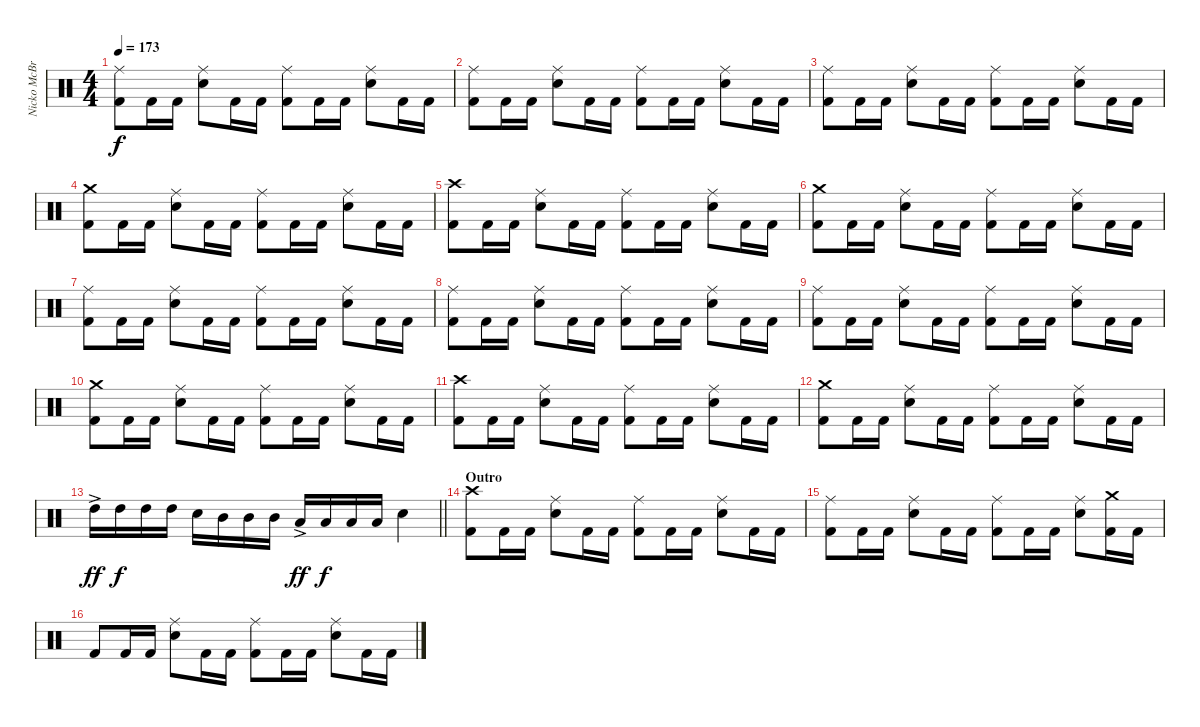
\track ("Nicko McBrain" "Nicko McBr") {instrument percussion}
\staff {score}
\articulation defaults
\ts (4 4)
\tempo 173
\clef neutral
\ks c
("Ride (middle)" "Kick (hit) 2").8{dy f} "Kick (hit) 2".16 "Kick (hit) 2".16 ("Ride (middle)" "Electric Snare (hit)").8 "Kick (hit) 2".16 "Kick (hit) 2".16 ("Ride (middle)" "Kick (hit) 2").8 "Kick (hit) 2".16 "Kick (hit) 2".16 ("Ride (middle)" "Electric Snare (hit)").8 "Kick (hit) 2".16 "Kick (hit) 2".16 |
("Ride (middle)" "Kick (hit) 2").8 "Kick (hit) 2".16 "Kick (hit) 2".16 ("Ride (middle)" "Electric Snare (hit)").8 "Kick (hit) 2".16 "Kick (hit) 2".16 ("Ride (middle)" "Kick (hit) 2").8 "Kick (hit) 2".16 "Kick (hit) 2".16 ("Ride (middle)" "Electric Snare (hit)").8 "Kick (hit) 2".16 "Kick (hit) 2".16 |
("Ride (middle)" "Kick (hit) 2").8 "Kick (hit) 2".16 "Kick (hit) 2".16 ("Ride (middle)" "Electric Snare (hit)").8 "Kick (hit) 2".16 "Kick (hit) 2".16 ("Ride (middle)" "Kick (hit) 2").8 "Kick (hit) 2".16 "Kick (hit) 2".16 ("Ride (middle)" "Electric Snare (hit)").8 "Kick (hit) 2".16 "Kick (hit) 2".16 |
("Crash medium (hit)" "Kick (hit) 2").8 "Kick (hit) 2".16 "Kick (hit) 2".16 ("Ride (middle)" "Electric Snare (hit)").8 "Kick (hit) 2".16 "Kick (hit) 2".16 ("Ride (middle)" "Kick (hit) 2").8 "Kick (hit) 2".16 "Kick (hit) 2".16 ("Ride (middle)" "Electric Snare (hit)").8 "Kick (hit) 2".16 "Kick (hit) 2".16 |
("Crash high (hit)" "Kick (hit) 2").8 "Kick (hit) 2".16 "Kick (hit) 2".16 ("Ride (middle)" "Electric Snare (hit)").8 "Kick (hit) 2".16 "Kick (hit) 2".16 ("Ride (middle)" "Kick (hit) 2").8 "Kick (hit) 2".16 "Kick (hit) 2".16 ("Ride (middle)" "Electric Snare (hit)").8 "Kick (hit) 2".16 "Kick (hit) 2".16 |
("Crash medium (hit)" "Kick (hit) 2").8 "Kick (hit) 2".16 "Kick (hit) 2".16 ("Ride (middle)" "Electric Snare (hit)").8 "Kick (hit) 2".16 "Kick (hit) 2".16 ("Ride (middle)" "Kick (hit) 2").8 "Kick (hit) 2".16 "Kick (hit) 2".16 ("Ride (middle)" "Electric Snare (hit)").8 "Kick (hit) 2".16 "Kick (hit) 2".16 |
("Ride (middle)" "Kick (hit) 2").8 "Kick (hit) 2".16 "Kick (hit) 2".16 ("Ride (middle)" "Electric Snare (hit)").8 "Kick (hit) 2".16 "Kick (hit) 2".16 ("Ride (middle)" "Kick (hit) 2").8 "Kick (hit) 2".16 "Kick (hit) 2".16 ("Ride (middle)" "Electric Snare (hit)").8 "Kick (hit) 2".16 "Kick (hit) 2".16 |
("Ride (middle)" "Kick (hit) 2").8 "Kick (hit) 2".16 "Kick (hit) 2".16 ("Ride (middle)" "Electric Snare (hit)").8 "Kick (hit) 2".16 "Kick (hit) 2".16 ("Ride (middle)" "Kick (hit) 2").8 "Kick (hit) 2".16 "Kick (hit) 2".16 ("Ride (middle)" "Electric Snare (hit)").8 "Kick (hit) 2".16 "Kick (hit) 2".16 |
("Ride (middle)" "Kick (hit) 2").8 "Kick (hit) 2".16 "Kick (hit) 2".16 ("Ride (middle)" "Electric Snare (hit)").8 "Kick (hit) 2".16 "Kick (hit) 2".16 ("Ride (middle)" "Kick (hit) 2").8 "Kick (hit) 2".16 "Kick (hit) 2".16 ("Ride (middle)" "Electric Snare (hit)").8 "Kick (hit) 2".16 "Kick (hit) 2".16 |
("Crash medium (hit)" "Kick (hit) 2").8 "Kick (hit) 2".16 "Kick (hit) 2".16 ("Ride (middle)" "Electric Snare (hit)").8 "Kick (hit) 2".16 "Kick (hit) 2".16 ("Ride (middle)" "Kick (hit) 2").8 "Kick (hit) 2".16 "Kick (hit) 2".16 ("Ride (middle)" "Electric Snare (hit)").8 "Kick (hit) 2".16 "Kick (hit) 2".16 |
("Crash high (hit)" "Kick (hit) 2").8 "Kick (hit) 2".16 "Kick (hit) 2".16 ("Ride (middle)" "Electric Snare (hit)").8 "Kick (hit) 2".16 "Kick (hit) 2".16 ("Ride (middle)" "Kick (hit) 2").8 "Kick (hit) 2".16 "Kick (hit) 2".16 ("Ride (middle)" "Electric Snare (hit)").8 "Kick (hit) 2".16 "Kick (hit) 2".16 |
("Crash medium (hit)" "Kick (hit) 2").8 "Kick (hit) 2".16 "Kick (hit) 2".16 ("Ride (middle)" "Electric Snare (hit)").8 "Kick (hit) 2".16 "Kick (hit) 2".16 ("Ride (middle)" "Kick (hit) 2").8 "Kick (hit) 2".16 "Kick (hit) 2".16 ("Ride (middle)" "Electric Snare (hit)").8 "Kick (hit) 2".16 "Kick (hit) 2".16 |
\barLineRight lightlight "High Tom (hit)"{ac}.16{dy ff} "High Tom (hit)".16{dy f} "High Tom (hit)".16 "High Tom (hit)".16 "Electric Snare (hit)".16 "Mid Tom (hit)".16 "Mid Tom (hit)".16 "Mid Tom (hit)".16 "Low Tom (hit)"{ac}.16{dy ff} "Low Tom (hit)".16{dy f} "Low Tom (hit)".16 "Low Tom (hit)".16 "Electric Snare (hit)".4
|
\section ("" "Outro")
("Crash high (hit)" "Kick (hit) 2").8 "Kick (hit) 2".16 "Kick (hit) 2".16 ("Ride (middle)" "Electric Snare (hit)").8 "Kick (hit) 2".16 "Kick (hit) 2".16 ("Ride (middle)" "Kick (hit) 2").8 "Kick (hit) 2".16 "Kick (hit) 2".16 ("Ride (middle)" "Electric Snare (hit)").8 "Kick (hit) 2".16 "Kick (hit) 2".16 |
("Ride (middle)" "Kick (hit) 2").8 "Kick (hit) 2".16 "Kick (hit) 2".16 ("Ride (middle)" "Electric Snare (hit)").8 "Kick (hit) 2".16 "Kick (hit) 2".16 ("Ride (middle)" "Kick (hit) 2").8 "Kick (hit) 2".16 "Kick (hit) 2".16 ("Ride (middle)" "Electric Snare (hit)").8 ("Crash medium (hit)" "Kick (hit) 2").16 "Kick (hit) 2".16 |
"Kick (hit) 2".8 "Kick (hit) 2".16 "Kick (hit) 2".16 ("Ride (middle)" "Electric Snare (hit)").8 "Kick (hit) 2".16 "Kick (hit) 2".16 ("Ride (middle)" "Kick (hit) 2").8 "Kick (hit) 2".16 "Kick (hit) 2".16 ("Ride (middle)" "Electric Snare (hit)").8 "Kick (hit) 2".16 "Kick (hit) 2".16
